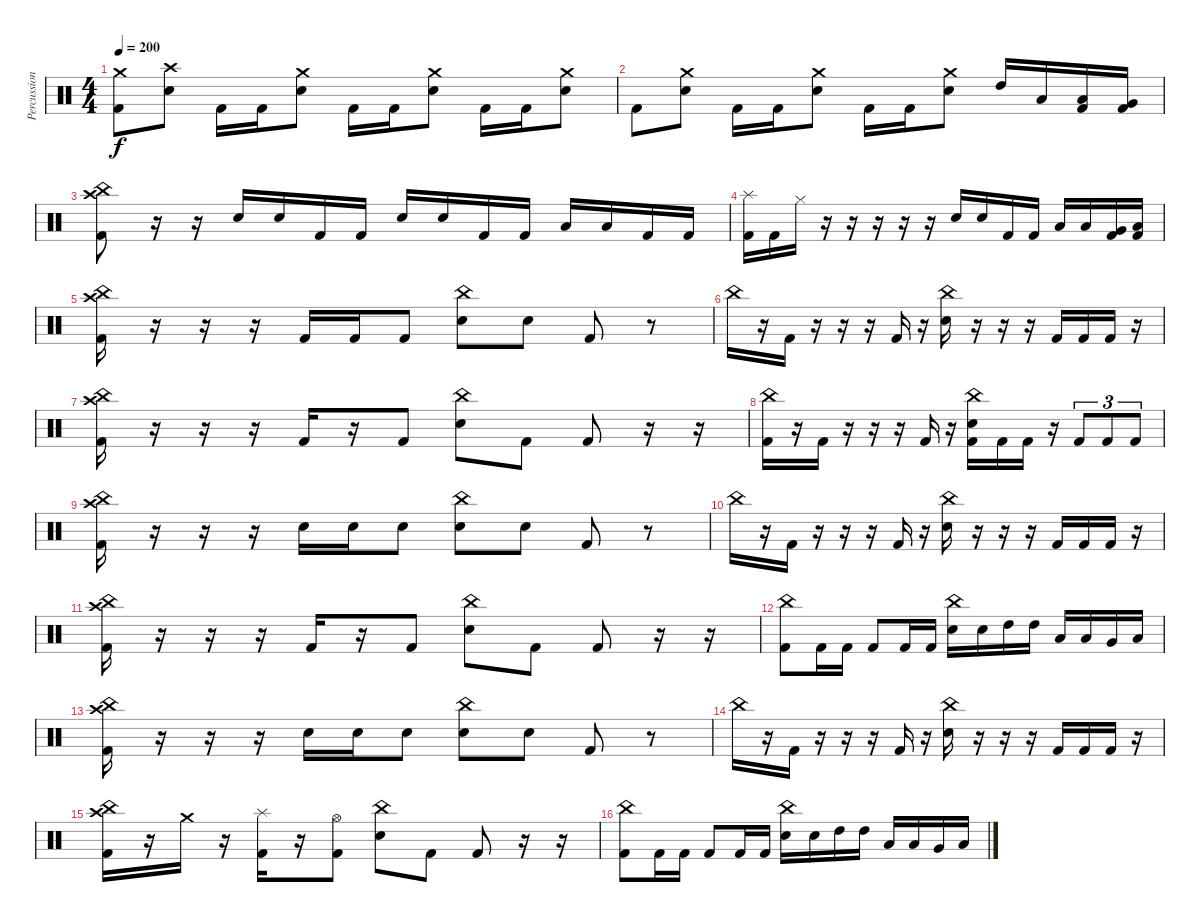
\track ("Percussion" "Percussion") {instrument percussion}
\staff {score}
\articulation defaults
\ts (4 4)
\tempo 200
\clef neutral
\ks c
("Kick (hit) 2" "Crash medium (hit)").8{dy f} ("Electric Snare (hit)" "Crash high (hit)").8 "Kick (hit) 2".16 "Kick (hit) 2".16 ("Crash medium (hit)" "Electric Snare (hit)").8 "Kick (hit) 2".16 "Kick (hit) 2".16 ("Crash medium (hit)" "Electric Snare (hit)").8 "Kick (hit) 2".16 "Kick (hit) 2".16 ("Crash medium (hit)" "Electric Snare (hit)").8 |
"Kick (hit) 2".8 ("Electric Snare (hit)" "Crash medium (hit)").8 "Kick (hit) 2".16 "Kick (hit) 2".16 ("Crash medium (hit)" "Electric Snare (hit)").8 "Kick (hit) 2".16 "Kick (hit) 2".16 ("Crash medium (hit)" "Electric Snare (hit)").8 "High Tom (hit)".16 "Low Tom (hit)".16 ("Low Tom (hit)" "Kick (hit) 2").16 ("Very Low Tom (hit)" "Kick (hit) 2").16 |
("China (hit)" "Crash high (hit)" "Kick (hit) 2").8 r.16 r.16 "Electric Snare (hit)".16 "Electric Snare (hit)".16 "Kick (hit) 2".16 "Kick (hit) 2".16 "Electric Snare (hit)".16 "Electric Snare (hit)".16 "Kick (hit) 2".16 "Kick (hit) 2".16 "Low Tom (hit)".16 "Low Tom (hit)".16 "Kick (hit) 2".16 "Kick (hit) 2".16 |
("Splash (hit)" "Kick (hit) 2").16 "Kick (hit) 2".16 "Hi-Hat (closed)".16 r.16 r.16 r.16 r.16 r.16 "Electric Snare (hit)".16 "Electric Snare (hit)".16 "Kick (hit) 2".16 "Kick (hit) 2".16 "Low Tom (hit)".16 "Low Tom (hit)".16 ("Kick (hit) 2" "Very Low Tom (hit)").16 ("Kick (hit) 2" "Low Floor Tom (hit)").16 |
("China (hit)" "Kick (hit) 2" "Crash high (hit)").16 r.16 r.16 r.16 "Kick (hit) 2".16 "Kick (hit) 2".16 "Kick (hit) 2".8 ("Electric Snare (hit)" "China (hit)").8 "Electric Snare (hit)".8 "Kick (hit) 2".8 r.8 |
"China (hit)".16 r.16 "Kick (hit) 2".16 r.16 r.16 r.16 "Kick (hit) 2".16 r.16 ("China (hit)" "Electric Snare (hit)").16 r.16 r.16 r.16 "Kick (hit) 2".16 "Kick (hit) 2".16 "Kick (hit) 2".16 r.16 |
("China (hit)" "Kick (hit) 2" "Crash high (hit)").16 r.16 r.16 r.16 "Kick (hit) 2".16 r.16 "Kick (hit) 2".8 ("Electric Snare (hit)" "China (hit)").8 "Kick (hit) 2".8 "Kick (hit) 2".8 r.16 r.16 |
("China (hit)" "Kick (hit) 2").16 r.16 "Kick (hit) 2".16 r.16 r.16 r.16 "Kick (hit) 2".16 r.16 ("China (hit)" "Electric Snare (hit)" "Kick (hit) 2").16 "Kick (hit) 2".16 "Kick (hit) 2".16 r.16 "Kick (hit) 2".8{tu (3 2)} "Kick (hit) 2".8{tu (3 2)} "Kick (hit) 2".8{tu (3 2)} |
("China (hit)" "Kick (hit) 2" "Crash high (hit)").16 r.16 r.16 r.16 "Electric Snare (hit)".16 "Electric Snare (hit)".16 "Electric Snare (hit)".8 ("Electric Snare (hit)" "China (hit)").8 "Electric Snare (hit)".8 "Kick (hit) 2".8 r.8 |
"China (hit)".16 r.16 "Kick (hit) 2".16 r.16 r.16 r.16 "Kick (hit) 2".16 r.16 ("China (hit)" "Electric Snare (hit)").16 r.16 r.16 r.16 "Kick (hit) 2".16 "Kick (hit) 2".16 "Kick (hit) 2".16 r.16 |
("China (hit)" "Kick (hit) 2" "Crash high (hit)").16 r.16 r.16 r.16 "Kick (hit) 2".16 r.16 "Kick (hit) 2".8 ("Electric Snare (hit)" "China (hit)").8 "Kick (hit) 2".8 "Kick (hit) 2".8 r.16 r.16 |
("China (hit)" "Kick (hit) 2").8 "Kick (hit) 2".16 "Kick (hit) 2".16 "Kick (hit) 2".8 "Kick (hit) 2".16 "Kick (hit) 2".16 ("China (hit)" "Electric Snare (hit)").16 "Electric Snare (hit)".16 "High Tom (hit)".16 "High Tom (hit)".16 "Low Tom (hit)".16 "Low Tom (hit)".16 "Very Low Tom (hit)".16 "Low Floor Tom (hit)".16 |
("China (hit)" "Kick (hit) 2" "Crash high (hit)").16 r.16 r.16 r.16 "Electric Snare (hit)".16 "Electric Snare (hit)".16 "Electric Snare (hit)".8 ("Electric Snare (hit)" "China (hit)").8 "Electric Snare (hit)".8 "Kick (hit) 2".8 r.8 |
"China (hit)".16 r.16 "Kick (hit) 2".16 r.16 r.16 r.16 "Kick (hit) 2".16 r.16 ("China (hit)" "Electric Snare (hit)").16 r.16 r.16 r.16 "Kick (hit) 2".16 "Kick (hit) 2".16 "Kick (hit) 2".16 r.16 |
("China (hit)" "Kick (hit) 2" "Crash high (hit)").16 r.16 "Crash medium (hit)".16 r.16 ("Kick (hit) 2" "Splash (hit)").16 r.16 ("Kick (hit) 2" "Hi-Hat (open)").8 ("Electric Snare (hit)" "China (hit)").8 "Kick (hit) 2".8 "Kick (hit) 2".8 r.16 r.16 |
("China (hit)" "Kick (hit) 2").8 "Kick (hit) 2".16 "Kick (hit) 2".16 "Kick (hit) 2".8 "Kick (hit) 2".16 "Kick (hit) 2".16 ("China (hit)" "Electric Snare (hit)").16 "Electric Snare (hit)".16 "High Tom (hit)".16 "High Tom (hit)".16 "Low Tom (hit)".16 "Low Tom (hit)".16 "Very Low Tom (hit)".16 "Low Floor Tom (hit)".16
